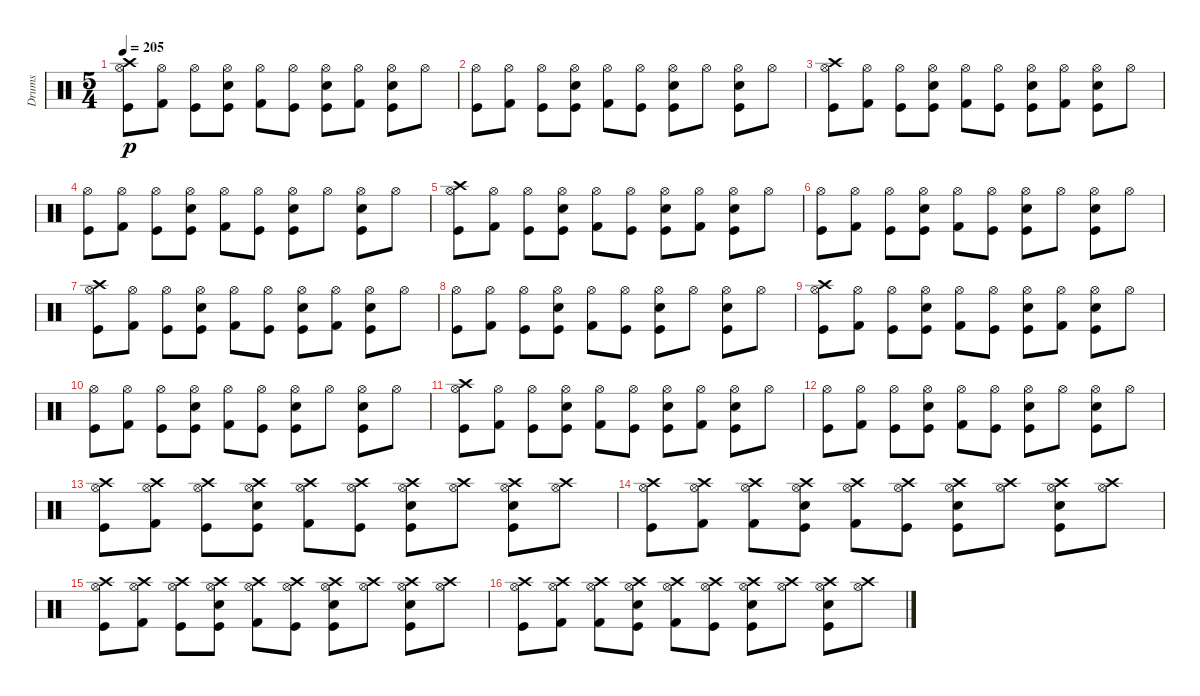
\track ("Drums" "Drums") {instrument percussion}
\staff {score}
\articulation defaults
\ts (5 4)
\tempo 205
\clef neutral
\ks c
("Crash high (hit)" "Hi-Hat (open)" "Kick (hit)").8{dy p} ("Hi-Hat (open)" "Kick (hit) 2").8 ("Hi-Hat (open)" "Kick (hit)").8 ("Hi-Hat (open)" "Snare (hit) 2" "Kick (hit)").8 ("Hi-Hat (open)" "Kick (hit) 2").8 ("Hi-Hat (open)" "Kick (hit)").8 ("Hi-Hat (open)" "Snare (hit) 2" "Kick (hit)").8 ("Hi-Hat (open)" "Kick (hit) 2").8 ("Hi-Hat (open)" "Snare (hit) 2" "Kick (hit)").8 "Hi-Hat (open)".8 |
("Hi-Hat (open)" "Kick (hit)").8 ("Hi-Hat (open)" "Kick (hit) 2").8 ("Hi-Hat (open)" "Kick (hit)").8 ("Hi-Hat (open)" "Snare (hit) 2" "Kick (hit)").8 ("Hi-Hat (open)" "Kick (hit) 2").8 ("Hi-Hat (open)" "Kick (hit)").8 ("Hi-Hat (open)" "Snare (hit) 2" "Kick (hit)").8 "Hi-Hat (open)".8 ("Hi-Hat (open)" "Snare (hit) 2" "Kick (hit)").8 "Hi-Hat (open)".8 |
("Crash high (hit)" "Hi-Hat (open)" "Kick (hit)").8 ("Hi-Hat (open)" "Kick (hit) 2").8 ("Hi-Hat (open)" "Kick (hit)").8 ("Hi-Hat (open)" "Snare (hit) 2" "Kick (hit)").8 ("Hi-Hat (open)" "Kick (hit) 2").8 ("Hi-Hat (open)" "Kick (hit)").8 ("Hi-Hat (open)" "Snare (hit) 2" "Kick (hit)").8 ("Hi-Hat (open)" "Kick (hit) 2").8 ("Hi-Hat (open)" "Snare (hit) 2" "Kick (hit)").8 "Hi-Hat (open)".8 |
("Hi-Hat (open)" "Kick (hit)").8 ("Hi-Hat (open)" "Kick (hit) 2").8 ("Hi-Hat (open)" "Kick (hit)").8 ("Hi-Hat (open)" "Snare (hit) 2" "Kick (hit)").8 ("Hi-Hat (open)" "Kick (hit) 2").8 ("Hi-Hat (open)" "Kick (hit)").8 ("Hi-Hat (open)" "Snare (hit) 2" "Kick (hit)").8 "Hi-Hat (open)".8 ("Hi-Hat (open)" "Snare (hit) 2" "Kick (hit)").8 "Hi-Hat (open)".8 |
("Crash high (hit)" "Hi-Hat (open)" "Kick (hit)").8 ("Hi-Hat (open)" "Kick (hit) 2").8 ("Hi-Hat (open)" "Kick (hit)").8 ("Hi-Hat (open)" "Snare (hit) 2" "Kick (hit)").8 ("Hi-Hat (open)" "Kick (hit) 2").8 ("Hi-Hat (open)" "Kick (hit)").8 ("Hi-Hat (open)" "Snare (hit) 2" "Kick (hit)").8 ("Hi-Hat (open)" "Kick (hit) 2").8 ("Hi-Hat (open)" "Snare (hit) 2" "Kick (hit)").8 "Hi-Hat (open)".8 |
("Hi-Hat (open)" "Kick (hit)").8 ("Hi-Hat (open)" "Kick (hit) 2").8 ("Hi-Hat (open)" "Kick (hit)").8 ("Hi-Hat (open)" "Snare (hit) 2" "Kick (hit)").8 ("Hi-Hat (open)" "Kick (hit) 2").8 ("Hi-Hat (open)" "Kick (hit)").8 ("Hi-Hat (open)" "Snare (hit) 2" "Kick (hit)").8 "Hi-Hat (open)".8 ("Hi-Hat (open)" "Snare (hit) 2" "Kick (hit)").8 "Hi-Hat (open)".8 |
("Crash high (hit)" "Hi-Hat (open)" "Kick (hit)").8 ("Hi-Hat (open)" "Kick (hit) 2").8 ("Hi-Hat (open)" "Kick (hit)").8 ("Hi-Hat (open)" "Snare (hit) 2" "Kick (hit)").8 ("Hi-Hat (open)" "Kick (hit) 2").8 ("Hi-Hat (open)" "Kick (hit)").8 ("Hi-Hat (open)" "Snare (hit) 2" "Kick (hit)").8 ("Hi-Hat (open)" "Kick (hit) 2").8 ("Hi-Hat (open)" "Snare (hit) 2" "Kick (hit)").8 "Hi-Hat (open)".8 |
("Hi-Hat (open)" "Kick (hit)").8 ("Hi-Hat (open)" "Kick (hit) 2").8 ("Hi-Hat (open)" "Kick (hit)").8 ("Hi-Hat (open)" "Snare (hit) 2" "Kick (hit)").8 ("Hi-Hat (open)" "Kick (hit) 2").8 ("Hi-Hat (open)" "Kick (hit)").8 ("Hi-Hat (open)" "Snare (hit) 2" "Kick (hit)").8 "Hi-Hat (open)".8 ("Hi-Hat (open)" "Snare (hit) 2" "Kick (hit)").8 "Hi-Hat (open)".8 |
("Crash high (hit)" "Hi-Hat (open)" "Kick (hit)").8 ("Hi-Hat (open)" "Kick (hit) 2").8 ("Hi-Hat (open)" "Kick (hit)").8 ("Hi-Hat (open)" "Snare (hit) 2" "Kick (hit)").8 ("Hi-Hat (open)" "Kick (hit) 2").8 ("Hi-Hat (open)" "Kick (hit)").8 ("Hi-Hat (open)" "Snare (hit) 2" "Kick (hit)").8 ("Hi-Hat (open)" "Kick (hit) 2").8 ("Hi-Hat (open)" "Snare (hit) 2" "Kick (hit)").8 "Hi-Hat (open)".8 |
("Hi-Hat (open)" "Kick (hit)").8 ("Hi-Hat (open)" "Kick (hit) 2").8 ("Hi-Hat (open)" "Kick (hit)").8 ("Hi-Hat (open)" "Snare (hit) 2" "Kick (hit)").8 ("Hi-Hat (open)" "Kick (hit) 2").8 ("Hi-Hat (open)" "Kick (hit)").8 ("Hi-Hat (open)" "Snare (hit) 2" "Kick (hit)").8 "Hi-Hat (open)".8 ("Hi-Hat (open)" "Snare (hit) 2" "Kick (hit)").8 "Hi-Hat (open)".8 |
("Crash high (hit)" "Hi-Hat (open)" "Kick (hit)").8 ("Hi-Hat (open)" "Kick (hit) 2").8 ("Hi-Hat (open)" "Kick (hit)").8 ("Hi-Hat (open)" "Snare (hit) 2" "Kick (hit)").8 ("Hi-Hat (open)" "Kick (hit) 2").8 ("Hi-Hat (open)" "Kick (hit)").8 ("Hi-Hat (open)" "Snare (hit) 2" "Kick (hit)").8 ("Hi-Hat (open)" "Kick (hit) 2").8 ("Hi-Hat (open)" "Snare (hit) 2" "Kick (hit)").8 "Hi-Hat (open)".8 |
("Hi-Hat (open)" "Kick (hit)").8 ("Hi-Hat (open)" "Kick (hit) 2").8 ("Hi-Hat (open)" "Kick (hit)").8 ("Hi-Hat (open)" "Snare (hit) 2" "Kick (hit)").8 ("Hi-Hat (open)" "Kick (hit) 2").8 ("Hi-Hat (open)" "Kick (hit)").8 ("Hi-Hat (open)" "Snare (hit) 2" "Kick (hit)").8 "Hi-Hat (open)".8 ("Hi-Hat (open)" "Snare (hit) 2" "Kick (hit)").8 "Hi-Hat (open)".8 |
("Crash high (hit)" "Hi-Hat (open)" "Kick (hit)").8 ("Crash high (hit)" "Hi-Hat (open)" "Kick (hit) 2").8 ("Crash high (hit)" "Hi-Hat (open)" "Kick (hit)").8 ("Crash high (hit)" "Hi-Hat (open)" "Snare (hit) 2" "Kick (hit)").8 ("Crash high (hit)" "Hi-Hat (open)" "Kick (hit) 2").8 ("Crash high (hit)" "Hi-Hat (open)" "Kick (hit)").8 ("Crash high (hit)" "Hi-Hat (open)" "Snare (hit) 2" "Kick (hit)").8 ("Crash high (hit)" "Hi-Hat (open)").8 ("Crash high (hit)" "Hi-Hat (open)" "Snare (hit) 2" "Kick (hit)").8 ("Crash high (hit)" "Hi-Hat (open)").8 |
("Crash high (hit)" "Hi-Hat (open)" "Kick (hit)").8 ("Crash high (hit)" "Hi-Hat (open)" "Kick (hit) 2").8 ("Crash high (hit)" "Hi-Hat (open)" "Kick (hit) 2").8 ("Crash high (hit)" "Hi-Hat (open)" "Snare (hit) 2" "Kick (hit)").8 ("Crash high (hit)" "Hi-Hat (open)" "Kick (hit) 2").8 ("Crash high (hit)" "Hi-Hat (open)" "Kick (hit)").8 ("Crash high (hit)" "Hi-Hat (open)" "Snare (hit) 2" "Kick (hit)").8 ("Crash high (hit)" "Hi-Hat (open)").8 ("Crash high (hit)" "Hi-Hat (open)" "Snare (hit) 2" "Kick (hit)").8 ("Crash high (hit)" "Hi-Hat (open)").8 |
("Crash high (hit)" "Hi-Hat (open)" "Kick (hit)").8 ("Crash high (hit)" "Hi-Hat (open)" "Kick (hit) 2").8 ("Crash high (hit)" "Hi-Hat (open)" "Kick (hit)").8 ("Crash high (hit)" "Hi-Hat (open)" "Snare (hit) 2" "Kick (hit)").8 ("Crash high (hit)" "Hi-Hat (open)" "Kick (hit) 2").8 ("Crash high (hit)" "Hi-Hat (open)" "Kick (hit)").8 ("Crash high (hit)" "Hi-Hat (open)" "Snare (hit) 2" "Kick (hit)").8 ("Crash high (hit)" "Hi-Hat (open)").8 ("Crash high (hit)" "Hi-Hat (open)" "Snare (hit) 2" "Kick (hit)").8 ("Crash high (hit)" "Hi-Hat (open)").8 |
("Crash high (hit)" "Hi-Hat (open)" "Kick (hit)").8 ("Crash high (hit)" "Hi-Hat (open)" "Kick (hit) 2").8 ("Crash high (hit)" "Hi-Hat (open)" "Kick (hit) 2").8 ("Crash high (hit)" "Hi-Hat (open)" "Snare (hit) 2" "Kick (hit)").8 ("Crash high (hit)" "Hi-Hat (open)" "Kick (hit) 2").8 ("Crash high (hit)" "Hi-Hat (open)" "Kick (hit)").8 ("Crash high (hit)" "Hi-Hat (open)" "Snare (hit) 2" "Kick (hit)").8 ("Crash high (hit)" "Hi-Hat (open)").8 ("Crash high (hit)" "Hi-Hat (open)" "Snare (hit) 2" "Kick (hit)").8 ("Crash high (hit)" "Hi-Hat (open)").8
